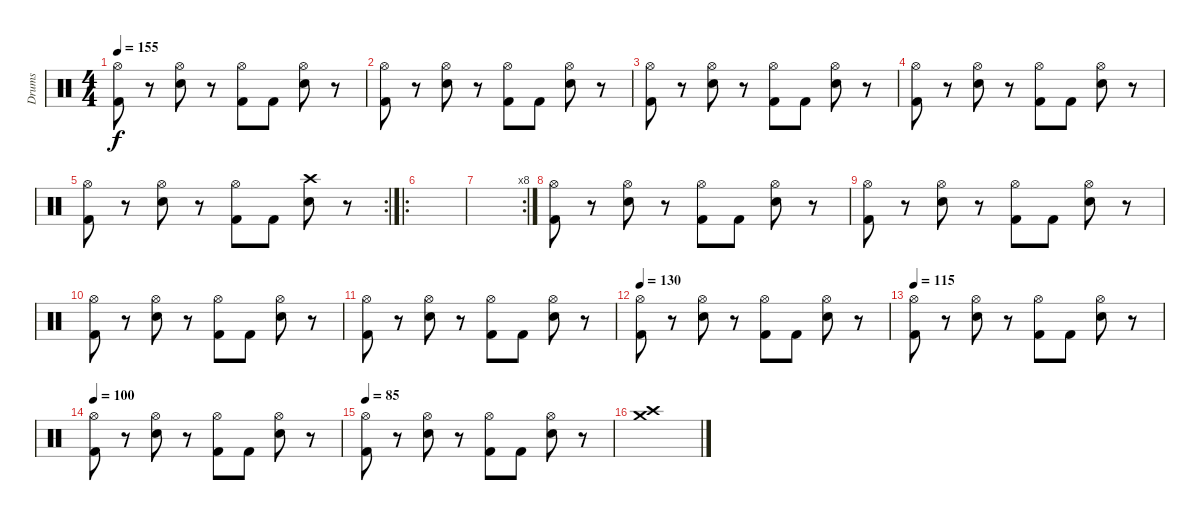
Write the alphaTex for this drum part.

\track ("Drums" "Drums") {instrument percussion}
\staff {score}
\articulation defaults
\ts (4 4)
\tempo 155
\clef neutral
\ks c
("Hi-Hat (open)" "Kick (hit) 2").8{dy f} r.8 ("Hi-Hat (open)" "Snare (hit) 2").8 r.8 ("Hi-Hat (open)" "Kick (hit) 2").8 "Kick (hit) 2".8 ("Hi-Hat (open)" "Snare (hit) 2").8 r.8 |
("Hi-Hat (open)" "Kick (hit) 2").8 r.8 ("Hi-Hat (open)" "Snare (hit) 2").8 r.8 ("Hi-Hat (open)" "Kick (hit) 2").8 "Kick (hit) 2".8 ("Hi-Hat (open)" "Snare (hit) 2").8 r.8 |
("Hi-Hat (open)" "Kick (hit) 2").8 r.8 ("Hi-Hat (open)" "Snare (hit) 2").8 r.8 ("Hi-Hat (open)" "Kick (hit) 2").8 "Kick (hit) 2".8 ("Hi-Hat (open)" "Snare (hit) 2").8 r.8 |
("Hi-Hat (open)" "Kick (hit) 2").8 r.8 ("Hi-Hat (open)" "Snare (hit) 2").8 r.8 ("Hi-Hat (open)" "Kick (hit) 2").8 "Kick (hit) 2".8 ("Hi-Hat (open)" "Snare (hit) 2").8 r.8 |
\rc 2
("Hi-Hat (open)" "Kick (hit) 2").8 r.8 ("Hi-Hat (open)" "Snare (hit) 2").8 r.8 ("Hi-Hat (open)" "Kick (hit) 2").8 "Kick (hit) 2".8 ("Crash high (hit)" "Snare (hit) 2").8 r.8 |
\ro
|
\rc 8
|
("Hi-Hat (open)" "Kick (hit) 2").8 r.8 ("Hi-Hat (open)" "Snare (hit) 2").8 r.8 ("Hi-Hat (open)" "Kick (hit) 2").8 "Kick (hit) 2".8 ("Hi-Hat (open)" "Snare (hit) 2").8 r.8 |
("Hi-Hat (open)" "Kick (hit) 2").8 r.8 ("Hi-Hat (open)" "Snare (hit) 2").8 r.8 ("Hi-Hat (open)" "Kick (hit) 2").8 "Kick (hit) 2".8 ("Hi-Hat (open)" "Snare (hit) 2").8 r.8 |
("Hi-Hat (open)" "Kick (hit) 2").8 r.8 ("Hi-Hat (open)" "Snare (hit) 2").8 r.8 ("Hi-Hat (open)" "Kick (hit) 2").8 "Kick (hit) 2".8 ("Hi-Hat (open)" "Snare (hit) 2").8 r.8 |
("Hi-Hat (open)" "Kick (hit) 2").8 r.8 ("Hi-Hat (open)" "Snare (hit) 2").8 r.8 ("Hi-Hat (open)" "Kick (hit) 2").8 "Kick (hit) 2".8 ("Hi-Hat (open)" "Snare (hit) 2").8 r.8 |
\tempo 130
("Hi-Hat (open)" "Kick (hit) 2").8 r.8 ("Hi-Hat (open)" "Snare (hit) 2").8 r.8 ("Hi-Hat (open)" "Kick (hit) 2").8 "Kick (hit) 2".8 ("Hi-Hat (open)" "Snare (hit) 2").8 r.8 |
\tempo 115
("Hi-Hat (open)" "Kick (hit) 2").8 r.8 ("Hi-Hat (open)" "Snare (hit) 2").8 r.8 ("Hi-Hat (open)" "Kick (hit) 2").8 "Kick (hit) 2".8 ("Hi-Hat (open)" "Snare (hit) 2").8 r.8 |
\tempo 100
("Hi-Hat (open)" "Kick (hit) 2").8 r.8 ("Hi-Hat (open)" "Snare (hit) 2").8 r.8 ("Hi-Hat (open)" "Kick (hit) 2").8 "Kick (hit) 2".8 ("Hi-Hat (open)" "Snare (hit) 2").8 r.8 |
\tempo 85
("Hi-Hat (open)" "Kick (hit) 2").8 r.8 ("Hi-Hat (open)" "Snare (hit) 2").8 r.8 ("Hi-Hat (open)" "Kick (hit) 2").8 "Kick (hit) 2".8 ("Hi-Hat (open)" "Snare (hit) 2").8 r.8 |
("Crash medium (hit)" "Crash high (hit)").1
